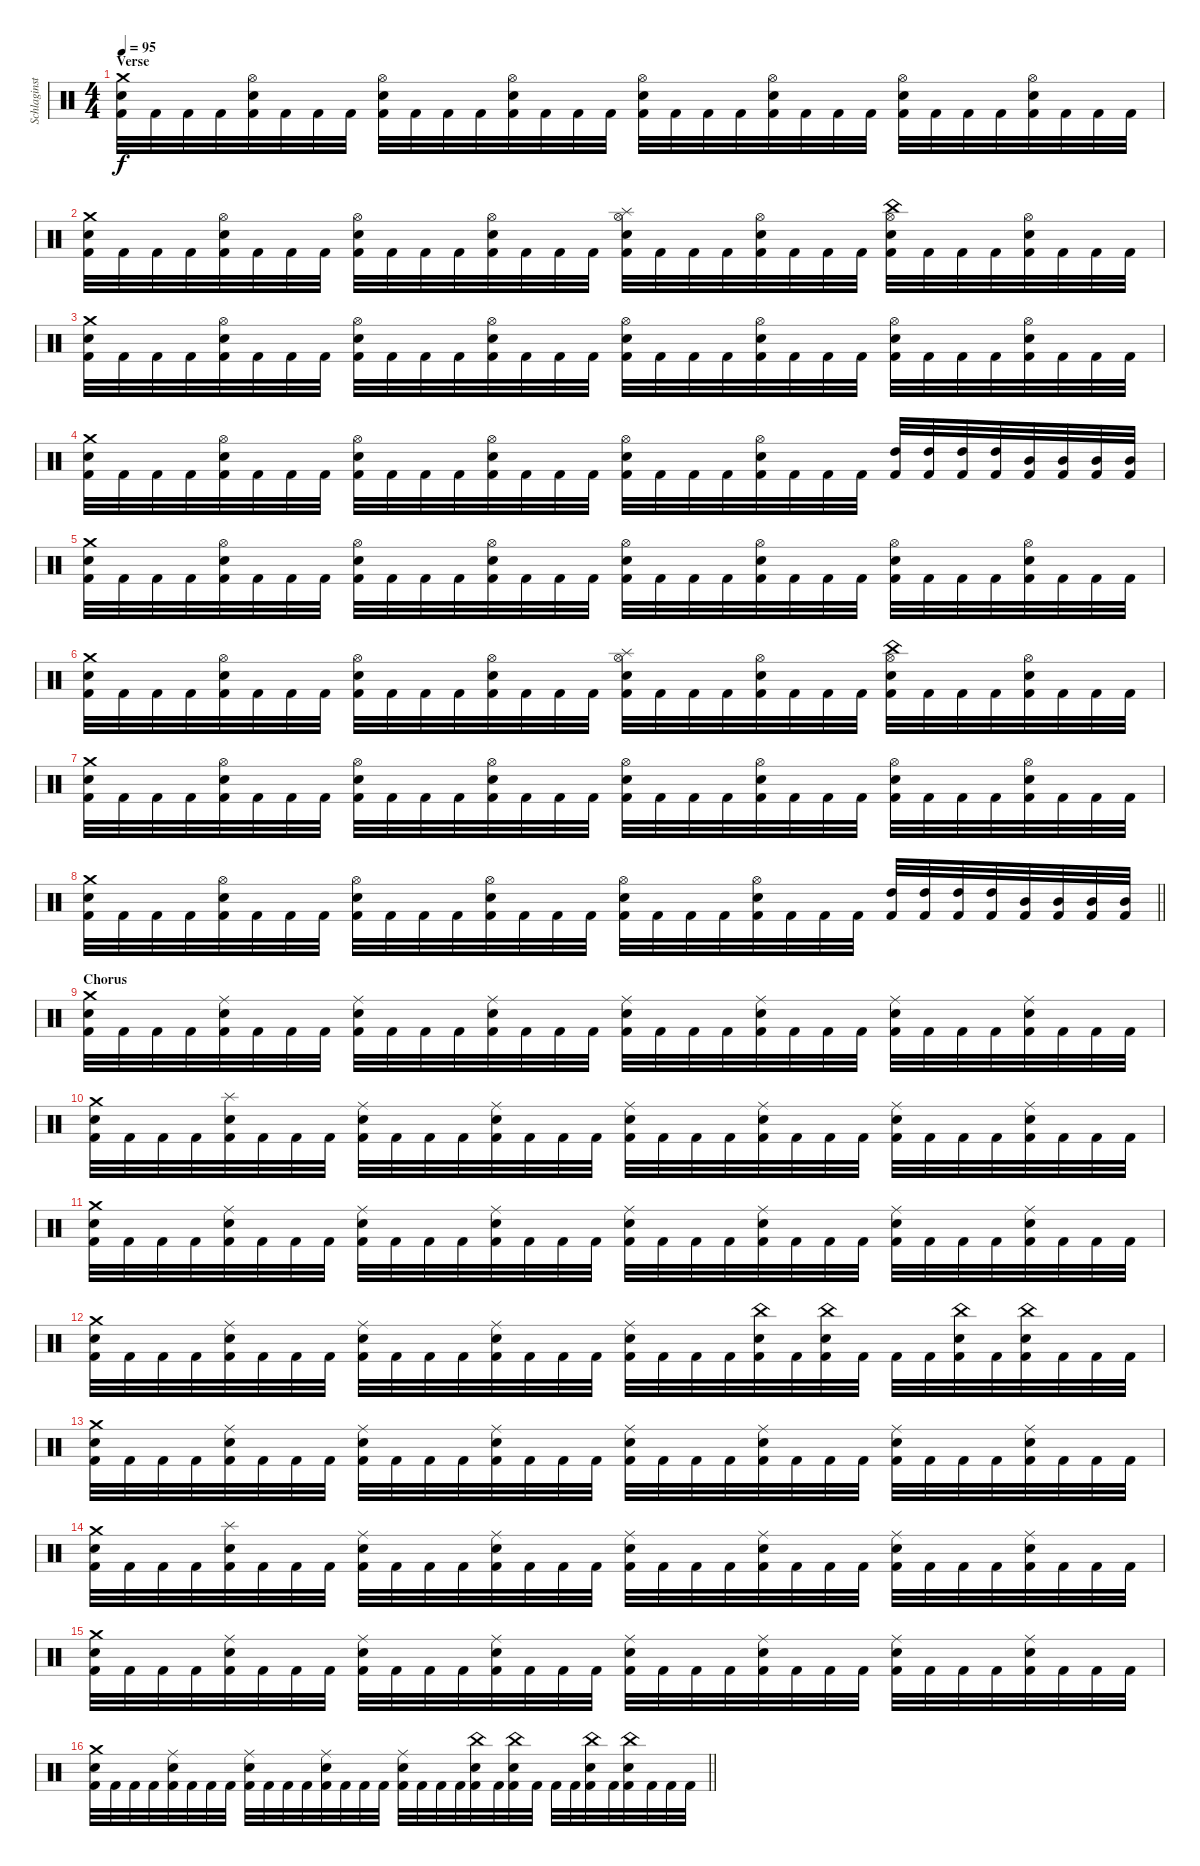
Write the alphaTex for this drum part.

\track ("Schlaginstrumente - Auswahl" "Schlaginst") {instrument percussion}
\staff {score}
\articulation defaults
\ts (4 4)
\section ("" "Verse")
\tempo 95
\clef neutral
\ks c
("Crash medium (hit)" "Snare (hit) 2" "Kick (hit) 2").32{dy f} "Kick (hit) 2".32 "Kick (hit) 2".32 "Kick (hit) 2".32 ("Snare (hit) 2" "Hi-Hat (open)" "Kick (hit) 2").32 "Kick (hit) 2".32 "Kick (hit) 2".32 "Kick (hit) 2".32 ("Snare (hit) 2" "Hi-Hat (open)" "Kick (hit) 2").32 "Kick (hit) 2".32 "Kick (hit) 2".32 "Kick (hit) 2".32 ("Snare (hit) 2" "Hi-Hat (open)" "Kick (hit) 2").32 "Kick (hit) 2".32 "Kick (hit) 2".32 "Kick (hit) 2".32 ("Snare (hit) 2" "Hi-Hat (open)" "Kick (hit) 2").32 "Kick (hit) 2".32 "Kick (hit) 2".32 "Kick (hit) 2".32 ("Snare (hit) 2" "Hi-Hat (open)" "Kick (hit) 2").32 "Kick (hit) 2".32 "Kick (hit) 2".32 "Kick (hit) 2".32 ("Snare (hit) 2" "Hi-Hat (open)" "Kick (hit) 2").32 "Kick (hit) 2".32 "Kick (hit) 2".32 "Kick (hit) 2".32 ("Snare (hit) 2" "Hi-Hat (open)" "Kick (hit) 2").32 "Kick (hit) 2".32 "Kick (hit) 2".32 "Kick (hit) 2".32 |
("Crash medium (hit)" "Snare (hit) 2" "Kick (hit) 2").32 "Kick (hit) 2".32 "Kick (hit) 2".32 "Kick (hit) 2".32 ("Snare (hit) 2" "Hi-Hat (open)" "Kick (hit) 2").32 "Kick (hit) 2".32 "Kick (hit) 2".32 "Kick (hit) 2".32 ("Snare (hit) 2" "Hi-Hat (open)" "Kick (hit) 2").32 "Kick (hit) 2".32 "Kick (hit) 2".32 "Kick (hit) 2".32 ("Snare (hit) 2" "Hi-Hat (open)" "Kick (hit) 2").32 "Kick (hit) 2".32 "Kick (hit) 2".32 "Kick (hit) 2".32 ("Splash (hit)" "Snare (hit) 2" "Hi-Hat (open)" "Kick (hit) 2").32 "Kick (hit) 2".32 "Kick (hit) 2".32 "Kick (hit) 2".32 ("Snare (hit) 2" "Hi-Hat (open)" "Kick (hit) 2").32 "Kick (hit) 2".32 "Kick (hit) 2".32 "Kick (hit) 2".32 ("China (hit)" "Snare (hit) 2" "Hi-Hat (open)" "Kick (hit) 2").32 "Kick (hit) 2".32 "Kick (hit) 2".32 "Kick (hit) 2".32 ("Snare (hit) 2" "Hi-Hat (open)" "Kick (hit) 2").32 "Kick (hit) 2".32 "Kick (hit) 2".32 "Kick (hit) 2".32 |
("Crash medium (hit)" "Snare (hit) 2" "Kick (hit) 2").32 "Kick (hit) 2".32 "Kick (hit) 2".32 "Kick (hit) 2".32 ("Snare (hit) 2" "Hi-Hat (open)" "Kick (hit) 2").32 "Kick (hit) 2".32 "Kick (hit) 2".32 "Kick (hit) 2".32 ("Snare (hit) 2" "Hi-Hat (open)" "Kick (hit) 2").32 "Kick (hit) 2".32 "Kick (hit) 2".32 "Kick (hit) 2".32 ("Snare (hit) 2" "Hi-Hat (open)" "Kick (hit) 2").32 "Kick (hit) 2".32 "Kick (hit) 2".32 "Kick (hit) 2".32 ("Snare (hit) 2" "Hi-Hat (open)" "Kick (hit) 2").32 "Kick (hit) 2".32 "Kick (hit) 2".32 "Kick (hit) 2".32 ("Snare (hit) 2" "Hi-Hat (open)" "Kick (hit) 2").32 "Kick (hit) 2".32 "Kick (hit) 2".32 "Kick (hit) 2".32 ("Snare (hit) 2" "Hi-Hat (open)" "Kick (hit) 2").32 "Kick (hit) 2".32 "Kick (hit) 2".32 "Kick (hit) 2".32 ("Snare (hit) 2" "Hi-Hat (open)" "Kick (hit) 2").32 "Kick (hit) 2".32 "Kick (hit) 2".32 "Kick (hit) 2".32 |
("Crash medium (hit)" "Snare (hit) 2" "Kick (hit) 2").32 "Kick (hit) 2".32 "Kick (hit) 2".32 "Kick (hit) 2".32 ("Snare (hit) 2" "Hi-Hat (open)" "Kick (hit) 2").32 "Kick (hit) 2".32 "Kick (hit) 2".32 "Kick (hit) 2".32 ("Snare (hit) 2" "Hi-Hat (open)" "Kick (hit) 2").32 "Kick (hit) 2".32 "Kick (hit) 2".32 "Kick (hit) 2".32 ("Snare (hit) 2" "Hi-Hat (open)" "Kick (hit) 2").32 "Kick (hit) 2".32 "Kick (hit) 2".32 "Kick (hit) 2".32 ("Snare (hit) 2" "Hi-Hat (open)" "Kick (hit) 2").32 "Kick (hit) 2".32 "Kick (hit) 2".32 "Kick (hit) 2".32 ("Snare (hit) 2" "Hi-Hat (open)" "Kick (hit) 2").32 "Kick (hit) 2".32 "Kick (hit) 2".32 "Kick (hit) 2".32 ("High Tom (hit)" "Kick (hit) 2").32 ("High Tom (hit)" "Kick (hit) 2").32 ("High Tom (hit)" "Kick (hit) 2").32 ("High Tom (hit)" "Kick (hit) 2").32 ("Mid Tom (hit)" "Kick (hit) 2").32 ("Mid Tom (hit)" "Kick (hit) 2").32 ("Mid Tom (hit)" "Kick (hit) 2").32 ("Mid Tom (hit)" "Kick (hit) 2").32 |
("Crash medium (hit)" "Snare (hit) 2" "Kick (hit) 2").32 "Kick (hit) 2".32 "Kick (hit) 2".32 "Kick (hit) 2".32 ("Snare (hit) 2" "Hi-Hat (open)" "Kick (hit) 2").32 "Kick (hit) 2".32 "Kick (hit) 2".32 "Kick (hit) 2".32 ("Snare (hit) 2" "Hi-Hat (open)" "Kick (hit) 2").32 "Kick (hit) 2".32 "Kick (hit) 2".32 "Kick (hit) 2".32 ("Snare (hit) 2" "Hi-Hat (open)" "Kick (hit) 2").32 "Kick (hit) 2".32 "Kick (hit) 2".32 "Kick (hit) 2".32 ("Snare (hit) 2" "Hi-Hat (open)" "Kick (hit) 2").32 "Kick (hit) 2".32 "Kick (hit) 2".32 "Kick (hit) 2".32 ("Snare (hit) 2" "Hi-Hat (open)" "Kick (hit) 2").32 "Kick (hit) 2".32 "Kick (hit) 2".32 "Kick (hit) 2".32 ("Snare (hit) 2" "Hi-Hat (open)" "Kick (hit) 2").32 "Kick (hit) 2".32 "Kick (hit) 2".32 "Kick (hit) 2".32 ("Snare (hit) 2" "Hi-Hat (open)" "Kick (hit) 2").32 "Kick (hit) 2".32 "Kick (hit) 2".32 "Kick (hit) 2".32 |
("Crash medium (hit)" "Snare (hit) 2" "Kick (hit) 2").32 "Kick (hit) 2".32 "Kick (hit) 2".32 "Kick (hit) 2".32 ("Snare (hit) 2" "Hi-Hat (open)" "Kick (hit) 2").32 "Kick (hit) 2".32 "Kick (hit) 2".32 "Kick (hit) 2".32 ("Snare (hit) 2" "Hi-Hat (open)" "Kick (hit) 2").32 "Kick (hit) 2".32 "Kick (hit) 2".32 "Kick (hit) 2".32 ("Snare (hit) 2" "Hi-Hat (open)" "Kick (hit) 2").32 "Kick (hit) 2".32 "Kick (hit) 2".32 "Kick (hit) 2".32 ("Splash (hit)" "Snare (hit) 2" "Hi-Hat (open)" "Kick (hit) 2").32 "Kick (hit) 2".32 "Kick (hit) 2".32 "Kick (hit) 2".32 ("Snare (hit) 2" "Hi-Hat (open)" "Kick (hit) 2").32 "Kick (hit) 2".32 "Kick (hit) 2".32 "Kick (hit) 2".32 ("China (hit)" "Snare (hit) 2" "Hi-Hat (open)" "Kick (hit) 2").32 "Kick (hit) 2".32 "Kick (hit) 2".32 "Kick (hit) 2".32 ("Snare (hit) 2" "Hi-Hat (open)" "Kick (hit) 2").32 "Kick (hit) 2".32 "Kick (hit) 2".32 "Kick (hit) 2".32 |
("Crash medium (hit)" "Snare (hit) 2" "Kick (hit) 2").32 "Kick (hit) 2".32 "Kick (hit) 2".32 "Kick (hit) 2".32 ("Snare (hit) 2" "Hi-Hat (open)" "Kick (hit) 2").32 "Kick (hit) 2".32 "Kick (hit) 2".32 "Kick (hit) 2".32 ("Snare (hit) 2" "Hi-Hat (open)" "Kick (hit) 2").32 "Kick (hit) 2".32 "Kick (hit) 2".32 "Kick (hit) 2".32 ("Snare (hit) 2" "Hi-Hat (open)" "Kick (hit) 2").32 "Kick (hit) 2".32 "Kick (hit) 2".32 "Kick (hit) 2".32 ("Snare (hit) 2" "Hi-Hat (open)" "Kick (hit) 2").32 "Kick (hit) 2".32 "Kick (hit) 2".32 "Kick (hit) 2".32 ("Snare (hit) 2" "Hi-Hat (open)" "Kick (hit) 2").32 "Kick (hit) 2".32 "Kick (hit) 2".32 "Kick (hit) 2".32 ("Snare (hit) 2" "Hi-Hat (open)" "Kick (hit) 2").32 "Kick (hit) 2".32 "Kick (hit) 2".32 "Kick (hit) 2".32 ("Snare (hit) 2" "Hi-Hat (open)" "Kick (hit) 2").32 "Kick (hit) 2".32 "Kick (hit) 2".32 "Kick (hit) 2".32 |
\barLineRight lightlight
("Crash medium (hit)" "Snare (hit) 2" "Kick (hit) 2").32 "Kick (hit) 2".32 "Kick (hit) 2".32 "Kick (hit) 2".32 ("Snare (hit) 2" "Hi-Hat (open)" "Kick (hit) 2").32 "Kick (hit) 2".32 "Kick (hit) 2".32 "Kick (hit) 2".32 ("Snare (hit) 2" "Hi-Hat (open)" "Kick (hit) 2").32 "Kick (hit) 2".32 "Kick (hit) 2".32 "Kick (hit) 2".32 ("Snare (hit) 2" "Hi-Hat (open)" "Kick (hit) 2").32 "Kick (hit) 2".32 "Kick (hit) 2".32 "Kick (hit) 2".32 ("Snare (hit) 2" "Hi-Hat (open)" "Kick (hit) 2").32 "Kick (hit) 2".32 "Kick (hit) 2".32 "Kick (hit) 2".32 ("Snare (hit) 2" "Hi-Hat (open)" "Kick (hit) 2").32 "Kick (hit) 2".32 "Kick (hit) 2".32 "Kick (hit) 2".32 ("High Tom (hit)" "Kick (hit) 2").32 ("High Tom (hit)" "Kick (hit) 2").32 ("High Tom (hit)" "Kick (hit) 2").32 ("High Tom (hit)" "Kick (hit) 2").32 ("Mid Tom (hit)" "Kick (hit) 2").32 ("Mid Tom (hit)" "Kick (hit) 2").32 ("Mid Tom (hit)" "Kick (hit) 2").32 ("Mid Tom (hit)" "Kick (hit) 2").32 |
\section ("" "Chorus")
("Crash medium (hit)" "Snare (hit) 2" "Kick (hit) 2").32 "Kick (hit) 2".32 "Kick (hit) 2".32 "Kick (hit) 2".32 ("Snare (hit) 2" "Ride (middle)" "Kick (hit) 2").32 "Kick (hit) 2".32 "Kick (hit) 2".32 "Kick (hit) 2".32 ("Snare (hit) 2" "Ride (middle)" "Kick (hit) 2").32 "Kick (hit) 2".32 "Kick (hit) 2".32 "Kick (hit) 2".32 ("Snare (hit) 2" "Ride (middle)" "Kick (hit) 2").32 "Kick (hit) 2".32 "Kick (hit) 2".32 "Kick (hit) 2".32 ("Snare (hit) 2" "Ride (middle)" "Kick (hit) 2").32 "Kick (hit) 2".32 "Kick (hit) 2".32 "Kick (hit) 2".32 ("Snare (hit) 2" "Ride (middle)" "Kick (hit) 2").32 "Kick (hit) 2".32 "Kick (hit) 2".32 "Kick (hit) 2".32 ("Snare (hit) 2" "Ride (middle)" "Kick (hit) 2").32 "Kick (hit) 2".32 "Kick (hit) 2".32 "Kick (hit) 2".32 ("Snare (hit) 2" "Ride (middle)" "Kick (hit) 2").32 "Kick (hit) 2".32 "Kick (hit) 2".32 "Kick (hit) 2".32 |
("Crash medium (hit)" "Snare (hit) 2" "Kick (hit) 2").32 "Kick (hit) 2".32 "Kick (hit) 2".32 "Kick (hit) 2".32 ("Snare (hit) 2" "Splash (hit)" "Kick (hit) 2").32 "Kick (hit) 2".32 "Kick (hit) 2".32 "Kick (hit) 2".32 ("Snare (hit) 2" "Ride (middle)" "Kick (hit) 2").32 "Kick (hit) 2".32 "Kick (hit) 2".32 "Kick (hit) 2".32 ("Snare (hit) 2" "Ride (middle)" "Kick (hit) 2").32 "Kick (hit) 2".32 "Kick (hit) 2".32 "Kick (hit) 2".32 ("Snare (hit) 2" "Ride (middle)" "Kick (hit) 2").32 "Kick (hit) 2".32 "Kick (hit) 2".32 "Kick (hit) 2".32 ("Snare (hit) 2" "Ride (middle)" "Kick (hit) 2").32 "Kick (hit) 2".32 "Kick (hit) 2".32 "Kick (hit) 2".32 ("Snare (hit) 2" "Ride (middle)" "Kick (hit) 2").32 "Kick (hit) 2".32 "Kick (hit) 2".32 "Kick (hit) 2".32 ("Snare (hit) 2" "Ride (middle)" "Kick (hit) 2").32 "Kick (hit) 2".32 "Kick (hit) 2".32 "Kick (hit) 2".32 |
("Crash medium (hit)" "Snare (hit) 2" "Kick (hit) 2").32 "Kick (hit) 2".32 "Kick (hit) 2".32 "Kick (hit) 2".32 ("Snare (hit) 2" "Ride (middle)" "Kick (hit) 2").32 "Kick (hit) 2".32 "Kick (hit) 2".32 "Kick (hit) 2".32 ("Snare (hit) 2" "Ride (middle)" "Kick (hit) 2").32 "Kick (hit) 2".32 "Kick (hit) 2".32 "Kick (hit) 2".32 ("Snare (hit) 2" "Ride (middle)" "Kick (hit) 2").32 "Kick (hit) 2".32 "Kick (hit) 2".32 "Kick (hit) 2".32 ("Snare (hit) 2" "Ride (middle)" "Kick (hit) 2").32 "Kick (hit) 2".32 "Kick (hit) 2".32 "Kick (hit) 2".32 ("Snare (hit) 2" "Ride (middle)" "Kick (hit) 2").32 "Kick (hit) 2".32 "Kick (hit) 2".32 "Kick (hit) 2".32 ("Snare (hit) 2" "Ride (middle)" "Kick (hit) 2").32 "Kick (hit) 2".32 "Kick (hit) 2".32 "Kick (hit) 2".32 ("Snare (hit) 2" "Ride (middle)" "Kick (hit) 2").32 "Kick (hit) 2".32 "Kick (hit) 2".32 "Kick (hit) 2".32 |
("Crash medium (hit)" "Snare (hit) 2" "Kick (hit) 2").32 "Kick (hit) 2".32 "Kick (hit) 2".32 "Kick (hit) 2".32 ("Snare (hit) 2" "Ride (middle)" "Kick (hit) 2").32 "Kick (hit) 2".32 "Kick (hit) 2".32 "Kick (hit) 2".32 ("Snare (hit) 2" "Ride (middle)" "Kick (hit) 2").32 "Kick (hit) 2".32 "Kick (hit) 2".32 "Kick (hit) 2".32 ("Snare (hit) 2" "Ride (middle)" "Kick (hit) 2").32 "Kick (hit) 2".32 "Kick (hit) 2".32 "Kick (hit) 2".32 ("Snare (hit) 2" "Ride (middle)" "Kick (hit) 2").32 "Kick (hit) 2".32 "Kick (hit) 2".32 "Kick (hit) 2".32 ("China (hit)" "Snare (hit) 2" "Kick (hit) 2").32 "Kick (hit) 2".32 ("China (hit)" "Snare (hit) 2" "Kick (hit) 2").32 "Kick (hit) 2".32 "Kick (hit) 2".32 "Kick (hit) 2".32 ("China (hit)" "Snare (hit) 2" "Kick (hit) 2").32 "Kick (hit) 2".32 ("China (hit)" "Snare (hit) 2" "Kick (hit) 2").32 "Kick (hit) 2".32 "Kick (hit) 2".32 "Kick (hit) 2".32 |
("Crash medium (hit)" "Snare (hit) 2" "Kick (hit) 2").32 "Kick (hit) 2".32 "Kick (hit) 2".32 "Kick (hit) 2".32 ("Snare (hit) 2" "Ride (middle)" "Kick (hit) 2").32 "Kick (hit) 2".32 "Kick (hit) 2".32 "Kick (hit) 2".32 ("Snare (hit) 2" "Ride (middle)" "Kick (hit) 2").32 "Kick (hit) 2".32 "Kick (hit) 2".32 "Kick (hit) 2".32 ("Snare (hit) 2" "Ride (middle)" "Kick (hit) 2").32 "Kick (hit) 2".32 "Kick (hit) 2".32 "Kick (hit) 2".32 ("Snare (hit) 2" "Ride (middle)" "Kick (hit) 2").32 "Kick (hit) 2".32 "Kick (hit) 2".32 "Kick (hit) 2".32 ("Snare (hit) 2" "Ride (middle)" "Kick (hit) 2").32 "Kick (hit) 2".32 "Kick (hit) 2".32 "Kick (hit) 2".32 ("Snare (hit) 2" "Ride (middle)" "Kick (hit) 2").32 "Kick (hit) 2".32 "Kick (hit) 2".32 "Kick (hit) 2".32 ("Snare (hit) 2" "Ride (middle)" "Kick (hit) 2").32 "Kick (hit) 2".32 "Kick (hit) 2".32 "Kick (hit) 2".32 |
("Crash medium (hit)" "Snare (hit) 2" "Kick (hit) 2").32 "Kick (hit) 2".32 "Kick (hit) 2".32 "Kick (hit) 2".32 ("Snare (hit) 2" "Splash (hit)" "Kick (hit) 2").32 "Kick (hit) 2".32 "Kick (hit) 2".32 "Kick (hit) 2".32 ("Snare (hit) 2" "Ride (middle)" "Kick (hit) 2").32 "Kick (hit) 2".32 "Kick (hit) 2".32 "Kick (hit) 2".32 ("Snare (hit) 2" "Ride (middle)" "Kick (hit) 2").32 "Kick (hit) 2".32 "Kick (hit) 2".32 "Kick (hit) 2".32 ("Snare (hit) 2" "Ride (middle)" "Kick (hit) 2").32 "Kick (hit) 2".32 "Kick (hit) 2".32 "Kick (hit) 2".32 ("Snare (hit) 2" "Ride (middle)" "Kick (hit) 2").32 "Kick (hit) 2".32 "Kick (hit) 2".32 "Kick (hit) 2".32 ("Snare (hit) 2" "Ride (middle)" "Kick (hit) 2").32 "Kick (hit) 2".32 "Kick (hit) 2".32 "Kick (hit) 2".32 ("Snare (hit) 2" "Ride (middle)" "Kick (hit) 2").32 "Kick (hit) 2".32 "Kick (hit) 2".32 "Kick (hit) 2".32 |
("Crash medium (hit)" "Snare (hit) 2" "Kick (hit) 2").32 "Kick (hit) 2".32 "Kick (hit) 2".32 "Kick (hit) 2".32 ("Snare (hit) 2" "Ride (middle)" "Kick (hit) 2").32 "Kick (hit) 2".32 "Kick (hit) 2".32 "Kick (hit) 2".32 ("Snare (hit) 2" "Ride (middle)" "Kick (hit) 2").32 "Kick (hit) 2".32 "Kick (hit) 2".32 "Kick (hit) 2".32 ("Snare (hit) 2" "Ride (middle)" "Kick (hit) 2").32 "Kick (hit) 2".32 "Kick (hit) 2".32 "Kick (hit) 2".32 ("Snare (hit) 2" "Ride (middle)" "Kick (hit) 2").32 "Kick (hit) 2".32 "Kick (hit) 2".32 "Kick (hit) 2".32 ("Snare (hit) 2" "Ride (middle)" "Kick (hit) 2").32 "Kick (hit) 2".32 "Kick (hit) 2".32 "Kick (hit) 2".32 ("Snare (hit) 2" "Ride (middle)" "Kick (hit) 2").32 "Kick (hit) 2".32 "Kick (hit) 2".32 "Kick (hit) 2".32 ("Snare (hit) 2" "Ride (middle)" "Kick (hit) 2").32 "Kick (hit) 2".32 "Kick (hit) 2".32 "Kick (hit) 2".32 |
\barLineRight lightlight
("Crash medium (hit)" "Snare (hit) 2" "Kick (hit) 2").32 "Kick (hit) 2".32 "Kick (hit) 2".32 "Kick (hit) 2".32 ("Snare (hit) 2" "Ride (middle)" "Kick (hit) 2").32 "Kick (hit) 2".32 "Kick (hit) 2".32 "Kick (hit) 2".32 ("Snare (hit) 2" "Ride (middle)" "Kick (hit) 2").32 "Kick (hit) 2".32 "Kick (hit) 2".32 "Kick (hit) 2".32 ("Snare (hit) 2" "Ride (middle)" "Kick (hit) 2").32 "Kick (hit) 2".32 "Kick (hit) 2".32 "Kick (hit) 2".32 ("Snare (hit) 2" "Ride (middle)" "Kick (hit) 2").32 "Kick (hit) 2".32 "Kick (hit) 2".32 "Kick (hit) 2".32 ("China (hit)" "Snare (hit) 2" "Kick (hit) 2").32 "Kick (hit) 2".32 ("China (hit)" "Snare (hit) 2" "Kick (hit) 2").32 "Kick (hit) 2".32 "Kick (hit) 2".32 "Kick (hit) 2".32 ("China (hit)" "Snare (hit) 2" "Kick (hit) 2").32 "Kick (hit) 2".32 ("China (hit)" "Snare (hit) 2" "Kick (hit) 2").32 "Kick (hit) 2".32 "Kick (hit) 2".32 "Kick (hit) 2".32
